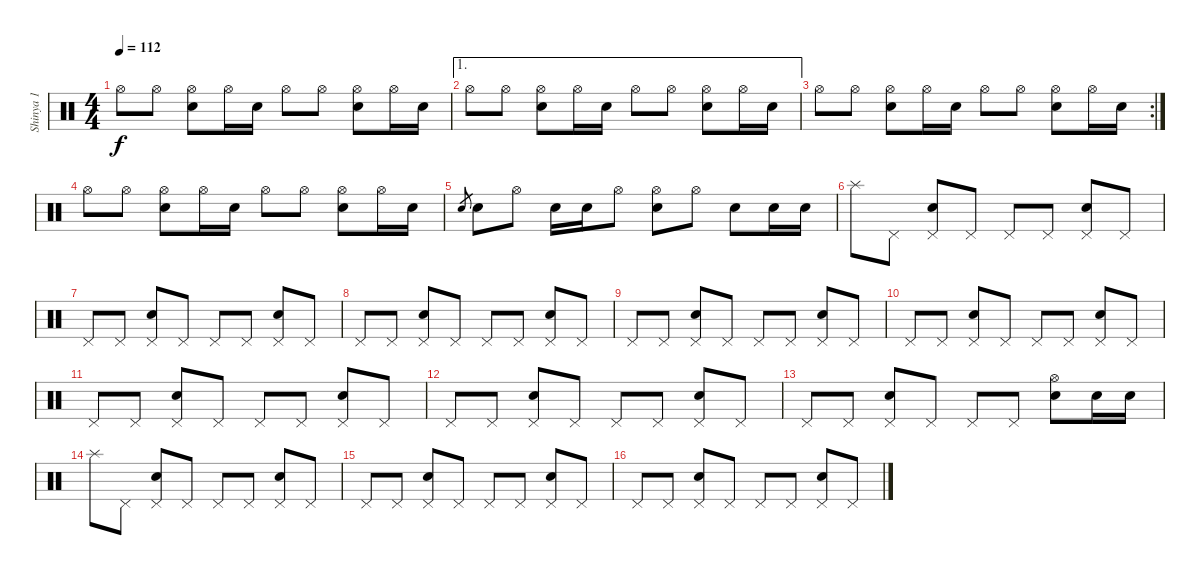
\track ("Shinya 1" "Shinya 1") {instrument percussion}
\staff {score}
\articulation defaults
\ts (4 4)
\tempo 112
\clef neutral
\ks c "Hi-Hat (open)".8{dy f} "Hi-Hat (open)".8
("Hi-Hat (open)" "Snare (hit) 2").8 "Hi-Hat (open)".16 "Snare (hit) 2".16 "Hi-Hat (open)".8 "Hi-Hat (open)".8 ("Hi-Hat (open)" "Snare (hit) 2").8 "Hi-Hat (open)".16 "Snare (hit) 2".16 |
\ae 1 "Hi-Hat (open)".8 "Hi-Hat (open)".8
("Hi-Hat (open)" "Snare (hit) 2").8 "Hi-Hat (open)".16 "Snare (hit) 2".16 "Hi-Hat (open)".8 "Hi-Hat (open)".8 ("Hi-Hat (open)" "Snare (hit) 2").8 "Hi-Hat (open)".16 "Snare (hit) 2".16 |
\rc 2 "Hi-Hat (open)".8 "Hi-Hat (open)".8
("Hi-Hat (open)" "Snare (hit) 2").8 "Hi-Hat (open)".16 "Snare (hit) 2".16 "Hi-Hat (open)".8 "Hi-Hat (open)".8 ("Hi-Hat (open)" "Snare (hit) 2").8 "Hi-Hat (open)".16 "Snare (hit) 2".16 |
"Hi-Hat (open)".8 "Hi-Hat (open)".8 ("Hi-Hat (open)" "Snare (hit) 2").8 "Hi-Hat (open)".16 "Snare (hit) 2".16 "Hi-Hat (open)".8 "Hi-Hat (open)".8 ("Hi-Hat (open)" "Snare (hit) 2").8 "Hi-Hat (open)".16 "Snare (hit) 2".16 |
"Snare (hit) 2".8{gr} "Snare (hit) 2".8 "Hi-Hat (open)".8 "Snare (hit) 2".16 "Snare (hit) 2".16 "Hi-Hat (open)".8 ("Hi-Hat (open)" "Snare (hit) 2").8 "Hi-Hat (open)".8 "Snare (hit) 2".8 "Snare (hit) 2".16 "Snare (hit) 2".16 |
"Splash (hit)".8 "Pedal Hi-Hat (hit)".8 ("Pedal Hi-Hat (hit)" "Snare (hit) 2").8 "Pedal Hi-Hat (hit)".8 "Pedal Hi-Hat (hit)".8 "Pedal Hi-Hat (hit)".8 ("Pedal Hi-Hat (hit)" "Snare (hit) 2").8 "Pedal Hi-Hat (hit)".8 |
"Pedal Hi-Hat (hit)".8 "Pedal Hi-Hat (hit)".8 ("Pedal Hi-Hat (hit)" "Snare (hit) 2").8 "Pedal Hi-Hat (hit)".8 "Pedal Hi-Hat (hit)".8 "Pedal Hi-Hat (hit)".8 ("Pedal Hi-Hat (hit)" "Snare (hit) 2").8 "Pedal Hi-Hat (hit)".8 |
"Pedal Hi-Hat (hit)".8 "Pedal Hi-Hat (hit)".8 ("Pedal Hi-Hat (hit)" "Snare (hit) 2").8 "Pedal Hi-Hat (hit)".8 "Pedal Hi-Hat (hit)".8 "Pedal Hi-Hat (hit)".8 ("Pedal Hi-Hat (hit)" "Snare (hit) 2").8 "Pedal Hi-Hat (hit)".8 |
"Pedal Hi-Hat (hit)".8 "Pedal Hi-Hat (hit)".8 ("Pedal Hi-Hat (hit)" "Snare (hit) 2").8 "Pedal Hi-Hat (hit)".8 "Pedal Hi-Hat (hit)".8 "Pedal Hi-Hat (hit)".8 ("Pedal Hi-Hat (hit)" "Snare (hit) 2").8 "Pedal Hi-Hat (hit)".8 |
"Pedal Hi-Hat (hit)".8 "Pedal Hi-Hat (hit)".8 ("Pedal Hi-Hat (hit)" "Snare (hit) 2").8 "Pedal Hi-Hat (hit)".8 "Pedal Hi-Hat (hit)".8 "Pedal Hi-Hat (hit)".8 ("Pedal Hi-Hat (hit)" "Snare (hit) 2").8 "Pedal Hi-Hat (hit)".8 |
"Pedal Hi-Hat (hit)".8 "Pedal Hi-Hat (hit)".8 ("Pedal Hi-Hat (hit)" "Snare (hit) 2").8 "Pedal Hi-Hat (hit)".8 "Pedal Hi-Hat (hit)".8 "Pedal Hi-Hat (hit)".8 ("Pedal Hi-Hat (hit)" "Snare (hit) 2").8 "Pedal Hi-Hat (hit)".8 |
"Pedal Hi-Hat (hit)".8 "Pedal Hi-Hat (hit)".8 ("Pedal Hi-Hat (hit)" "Snare (hit) 2").8 "Pedal Hi-Hat (hit)".8 "Pedal Hi-Hat (hit)".8 "Pedal Hi-Hat (hit)".8 ("Pedal Hi-Hat (hit)" "Snare (hit) 2").8 "Pedal Hi-Hat (hit)".8 |
"Pedal Hi-Hat (hit)".8 "Pedal Hi-Hat (hit)".8 ("Pedal Hi-Hat (hit)" "Snare (hit) 2").8 "Pedal Hi-Hat (hit)".8 "Pedal Hi-Hat (hit)".8 "Pedal Hi-Hat (hit)".8 ("Hi-Hat (open)" "Snare (hit) 2").8 "Snare (hit) 2".16 "Snare (hit) 2".16 |
"Splash (hit)".8 "Pedal Hi-Hat (hit)".8 ("Pedal Hi-Hat (hit)" "Snare (hit) 2").8 "Pedal Hi-Hat (hit)".8 "Pedal Hi-Hat (hit)".8 "Pedal Hi-Hat (hit)".8 ("Pedal Hi-Hat (hit)" "Snare (hit) 2").8 "Pedal Hi-Hat (hit)".8 |
"Pedal Hi-Hat (hit)".8 "Pedal Hi-Hat (hit)".8 ("Pedal Hi-Hat (hit)" "Snare (hit) 2").8 "Pedal Hi-Hat (hit)".8 "Pedal Hi-Hat (hit)".8 "Pedal Hi-Hat (hit)".8 ("Pedal Hi-Hat (hit)" "Snare (hit) 2").8 "Pedal Hi-Hat (hit)".8 |
"Pedal Hi-Hat (hit)".8 "Pedal Hi-Hat (hit)".8 ("Pedal Hi-Hat (hit)" "Snare (hit) 2").8 "Pedal Hi-Hat (hit)".8 "Pedal Hi-Hat (hit)".8 "Pedal Hi-Hat (hit)".8 ("Pedal Hi-Hat (hit)" "Snare (hit) 2").8 "Pedal Hi-Hat (hit)".8
